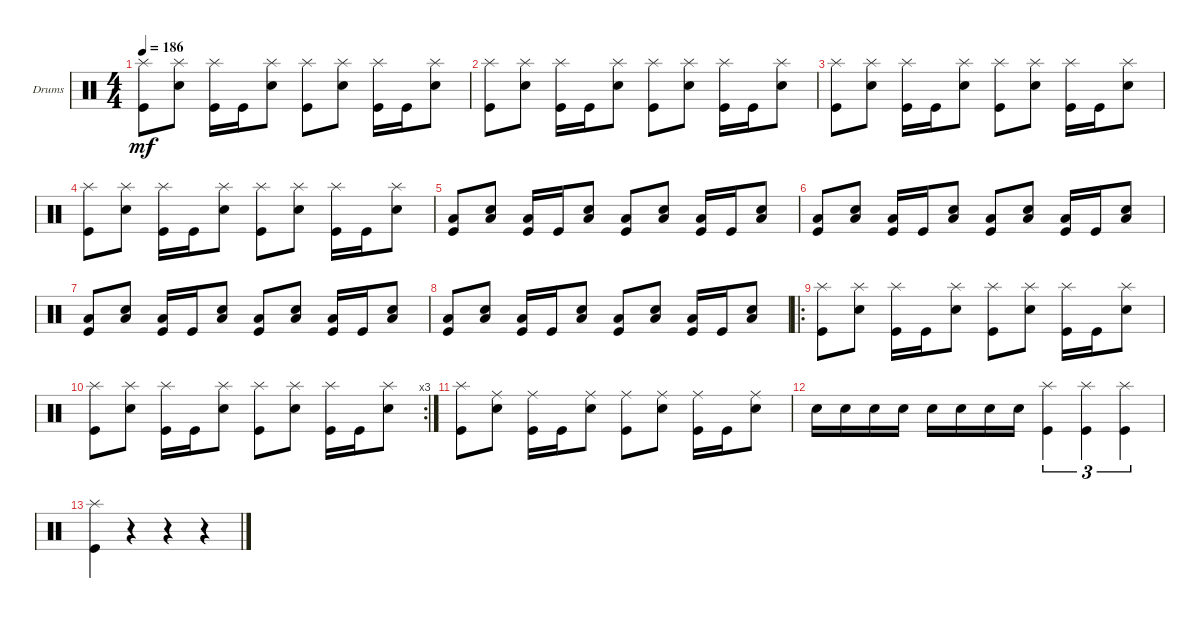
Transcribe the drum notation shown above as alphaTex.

\defaultSystemsLayout 4
\bracketExtendMode groupsimilarinstruments
\firstSystemTrackNameOrientation horizontal
\otherSystemsTrackNameOrientation horizontal
\track ("Drumkit" "Drums") {instrument percussion}
\staff {score}
\articulation defaults
\ts (4 4)
\tempo 186
\clef neutral
\ks c
("Kick (hit)" "Splash (hit)").8{dy mf} ("Snare (hit) 2" "Splash (hit)").8 ("Kick (hit)" "Splash (hit)").16 "Kick (hit)".16 ("Snare (hit) 2" "Splash (hit)").8 ("Kick (hit)" "Splash (hit)").8 ("Snare (hit) 2" "Splash (hit)").8 ("Kick (hit)" "Splash (hit)").16 "Kick (hit)".16 ("Snare (hit) 2" "Splash (hit)").8 |
("Kick (hit)" "Splash (hit)").8 ("Snare (hit) 2" "Splash (hit)").8 ("Kick (hit)" "Splash (hit)").16 "Kick (hit)".16 ("Snare (hit) 2" "Splash (hit)").8 ("Kick (hit)" "Splash (hit)").8 ("Snare (hit) 2" "Splash (hit)").8 ("Kick (hit)" "Splash (hit)").16 "Kick (hit)".16 ("Snare (hit) 2" "Splash (hit)").8 |
("Kick (hit)" "Splash (hit)").8 ("Snare (hit) 2" "Splash (hit)").8 ("Kick (hit)" "Splash (hit)").16 "Kick (hit)".16 ("Snare (hit) 2" "Splash (hit)").8 ("Kick (hit)" "Splash (hit)").8 ("Snare (hit) 2" "Splash (hit)").8 ("Kick (hit)" "Splash (hit)").16 "Kick (hit)".16 ("Snare (hit) 2" "Splash (hit)").8 |
("Kick (hit)" "Splash (hit)").8 ("Snare (hit) 2" "Splash (hit)").8 ("Kick (hit)" "Splash (hit)").16 "Kick (hit)".16 ("Snare (hit) 2" "Splash (hit)").8 ("Kick (hit)" "Splash (hit)").8 ("Snare (hit) 2" "Splash (hit)").8 ("Kick (hit)" "Splash (hit)").16 "Kick (hit)".16 ("Snare (hit) 2" "Splash (hit)").8 |
("Kick (hit)" "Low Tom (hit)").8 ("Snare (hit) 2" "Low Tom (hit)").8 ("Kick (hit)" "Low Tom (hit)").16 "Kick (hit)".16 ("Snare (hit) 2" "Low Tom (hit)").8 ("Kick (hit)" "Low Tom (hit)").8 ("Snare (hit) 2" "Low Tom (hit)").8 ("Kick (hit)" "Low Tom (hit)").16 "Kick (hit)".16 ("Snare (hit) 2" "Low Tom (hit)").8 |
("Kick (hit)" "Low Tom (hit)").8 ("Snare (hit) 2" "Low Tom (hit)").8 ("Kick (hit)" "Low Tom (hit)").16 "Kick (hit)".16 ("Snare (hit) 2" "Low Tom (hit)").8 ("Kick (hit)" "Low Tom (hit)").8 ("Snare (hit) 2" "Low Tom (hit)").8 ("Kick (hit)" "Low Tom (hit)").16 "Kick (hit)".16 ("Snare (hit) 2" "Low Tom (hit)").8 |
("Kick (hit)" "Low Tom (hit)").8 ("Snare (hit) 2" "Low Tom (hit)").8 ("Kick (hit)" "Low Tom (hit)").16 "Kick (hit)".16 ("Snare (hit) 2" "Low Tom (hit)").8 ("Kick (hit)" "Low Tom (hit)").8 ("Snare (hit) 2" "Low Tom (hit)").8 ("Kick (hit)" "Low Tom (hit)").16 "Kick (hit)".16 ("Snare (hit) 2" "Low Tom (hit)").8 |
("Kick (hit)" "Low Tom (hit)").8 ("Snare (hit) 2" "Low Tom (hit)").8 ("Kick (hit)" "Low Tom (hit)").16 "Kick (hit)".16 ("Snare (hit) 2" "Low Tom (hit)").8 ("Kick (hit)" "Low Tom (hit)").8 ("Snare (hit) 2" "Low Tom (hit)").8 ("Kick (hit)" "Low Tom (hit)").16 "Kick (hit)".16 ("Snare (hit) 2" "Low Tom (hit)").8 |
\ro
("Kick (hit)" "Splash (hit)").8 ("Snare (hit) 2" "Splash (hit)").8 ("Kick (hit)" "Splash (hit)").16 "Kick (hit)".16 ("Snare (hit) 2" "Splash (hit)").8 ("Kick (hit)" "Splash (hit)").8 ("Snare (hit) 2" "Splash (hit)").8 ("Kick (hit)" "Splash (hit)").16 "Kick (hit)".16 ("Snare (hit) 2" "Splash (hit)").8 |
\rc 3
("Kick (hit)" "Splash (hit)").8 ("Snare (hit) 2" "Splash (hit)").8 ("Kick (hit)" "Splash (hit)").16 "Kick (hit)".16 ("Snare (hit) 2" "Splash (hit)").8 ("Kick (hit)" "Splash (hit)").8 ("Snare (hit) 2" "Splash (hit)").8 ("Kick (hit)" "Splash (hit)").16 "Kick (hit)".16 ("Snare (hit) 2" "Splash (hit)").8 |
("Kick (hit)" "Splash (hit)").8 ("Snare (hit) 2" "Ride (middle)").8 ("Kick (hit)" "Ride (middle)").16 "Kick (hit)".16 ("Snare (hit) 2" "Ride (middle)").8 ("Kick (hit)" "Ride (middle)").8 ("Snare (hit) 2" "Ride (middle)").8 ("Kick (hit)" "Ride (middle)").16 "Kick (hit)".16 ("Snare (hit) 2" "Ride (middle)").8 |
"Snare (hit) 2".16 "Snare (hit) 2".16 "Snare (hit) 2".16 "Snare (hit) 2".16 "Snare (hit) 2".16 "Snare (hit) 2".16 "Snare (hit) 2".16 "Snare (hit) 2".16 ("Kick (hit)" "Splash (hit)").4{tu (3 2)} ("Kick (hit)" "Splash (hit)").4{tu (3 2)} ("Kick (hit)" "Splash (hit)").4{tu (3 2)} |
("Splash (hit)" "Kick (hit)").4 r.4 r.4 r.4
